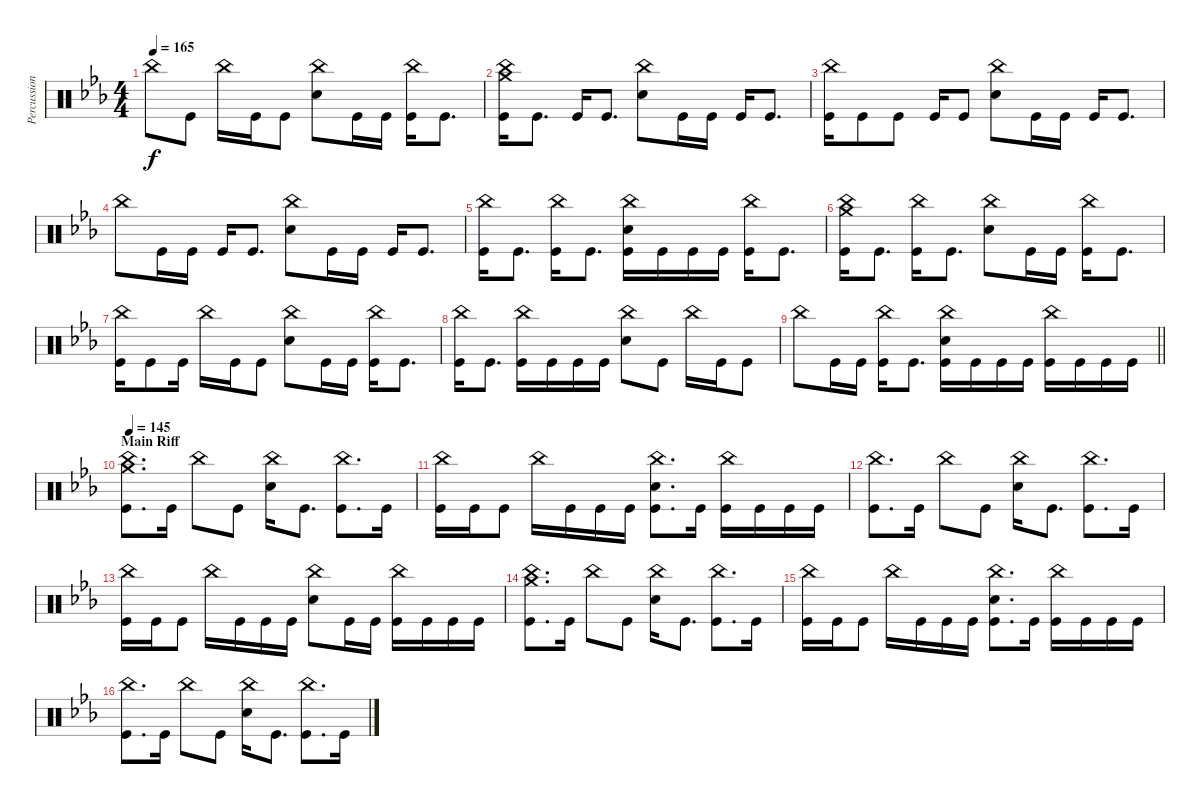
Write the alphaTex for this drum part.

\track ("Percussion" "Percussion") {instrument percussion}
\staff {score}
\articulation defaults
\ts (4 4)
\tempo 165
\clef neutral
\ks eb "China (hit)".8{dy f} "Kick (hit)".8 "China (hit)".16 "Kick (hit)".16 "Kick (hit)".8
("China (hit)" "Electric Snare (hit)").8 "Kick (hit)".16 "Kick (hit)".16 ("China (hit)" "Kick (hit)").16 "Kick (hit)".8{d} |
("Crash medium (hit)" "China (hit)" "Kick (hit)").16 "Kick (hit)".8{d} "Kick (hit)".16 "Kick (hit)".8{d} ("China (hit)" "Electric Snare (hit)").8 "Kick (hit)".16 "Kick (hit)".16 "Kick (hit)".16 "Kick (hit)".8{d} |
("China (hit)" "Kick (hit)").16 "Kick (hit)".8 "Kick (hit)".8 "Kick (hit)".16 "Kick (hit)".8 ("China (hit)" "Electric Snare (hit)").8 "Kick (hit)".16 "Kick (hit)".16 "Kick (hit)".16 "Kick (hit)".8{d} |
"China (hit)".8 "Kick (hit)".16 "Kick (hit)".16 "Kick (hit)".16 "Kick (hit)".8{d} ("China (hit)" "Electric Snare (hit)").8 "Kick (hit)".16 "Kick (hit)".16 "Kick (hit)".16 "Kick (hit)".8{d} |
("China (hit)" "Kick (hit)").16 "Kick (hit)".8{d} ("China (hit)" "Kick (hit)").16 "Kick (hit)".8{d} ("China (hit)" "Electric Snare (hit)" "Kick (hit)").16 "Kick (hit)".16 "Kick (hit)".16 "Kick (hit)".16 ("China (hit)" "Kick (hit)").16 "Kick (hit)".8{d} |
("Crash medium (hit)" "China (hit)" "Kick (hit)").16 "Kick (hit)".8{d} ("China (hit)" "Kick (hit)").16 "Kick (hit)".8{d} ("China (hit)" "Electric Snare (hit)").8 "Kick (hit)".16 "Kick (hit)".16 ("China (hit)" "Kick (hit)").16 "Kick (hit)".8{d} |
("China (hit)" "Kick (hit)").16 "Kick (hit)".8 "Kick (hit)".16 "China (hit)".16 "Kick (hit)".16 "Kick (hit)".8 ("China (hit)" "Electric Snare (hit)").8 "Kick (hit)".16 "Kick (hit)".16 ("China (hit)" "Kick (hit)").16 "Kick (hit)".8{d} |
("China (hit)" "Kick (hit)").16 "Kick (hit)".8{d} ("China (hit)" "Kick (hit)").16 "Kick (hit)".16 "Kick (hit)".16 "Kick (hit)".16 ("China (hit)" "Electric Snare (hit)").8 "Kick (hit)".8 "China (hit)".16 "Kick (hit)".16 "Kick (hit)".8 |
\barLineRight lightlight "China (hit)".8 "Kick (hit)".16 "Kick (hit)".16
("China (hit)" "Kick (hit)").16 "Kick (hit)".8{d} ("China (hit)" "Electric Snare (hit)" "Kick (hit)").16 "Kick (hit)".16 "Kick (hit)".16 "Kick (hit)".16 ("China (hit)" "Kick (hit)").16 "Kick (hit)".16 "Kick (hit)".16 "Kick (hit)".16 |
\section ("" "Main Riff")
\tempo 145
("Crash medium (hit)" "China (hit)" "Kick (hit)").8{d} "Kick (hit)".16 "China (hit)".8 "Kick (hit)".8 ("China (hit)" "Electric Snare (hit)").16 "Kick (hit)".8{d} ("China (hit)" "Kick (hit)").8{d} "Kick (hit)".16 |
("China (hit)" "Kick (hit)").16 "Kick (hit)".16 "Kick (hit)".8 "China (hit)".16 "Kick (hit)".16 "Kick (hit)".16 "Kick (hit)".16 ("China (hit)" "Electric Snare (hit)" "Kick (hit)").8{d} "Kick (hit)".16 ("China (hit)" "Kick (hit)").16 "Kick (hit)".16 "Kick (hit)".16 "Kick (hit)".16 |
("China (hit)" "Kick (hit)").8{d} "Kick (hit)".16 "China (hit)".8 "Kick (hit)".8 ("China (hit)" "Electric Snare (hit)").16 "Kick (hit)".8{d} ("China (hit)" "Kick (hit)").8{d} "Kick (hit)".16 |
("China (hit)" "Kick (hit)").16 "Kick (hit)".16 "Kick (hit)".8 "China (hit)".16 "Kick (hit)".16 "Kick (hit)".16 "Kick (hit)".16 ("China (hit)" "Electric Snare (hit)").8 "Kick (hit)".16 "Kick (hit)".16 ("China (hit)" "Kick (hit)").16 "Kick (hit)".16 "Kick (hit)".16 "Kick (hit)".16 |
("Crash medium (hit)" "China (hit)" "Kick (hit)").8{d} "Kick (hit)".16 "China (hit)".8 "Kick (hit)".8 ("China (hit)" "Electric Snare (hit)").16 "Kick (hit)".8{d} ("China (hit)" "Kick (hit)").8{d} "Kick (hit)".16 |
("China (hit)" "Kick (hit)").16 "Kick (hit)".16 "Kick (hit)".8 "China (hit)".16 "Kick (hit)".16 "Kick (hit)".16 "Kick (hit)".16 ("China (hit)" "Electric Snare (hit)" "Kick (hit)").8{d} "Kick (hit)".16 ("China (hit)" "Kick (hit)").16 "Kick (hit)".16 "Kick (hit)".16 "Kick (hit)".16 |
("China (hit)" "Kick (hit)").8{d} "Kick (hit)".16 "China (hit)".8 "Kick (hit)".8 ("China (hit)" "Electric Snare (hit)").16 "Kick (hit)".8{d} ("China (hit)" "Kick (hit)").8{d} "Kick (hit)".16
